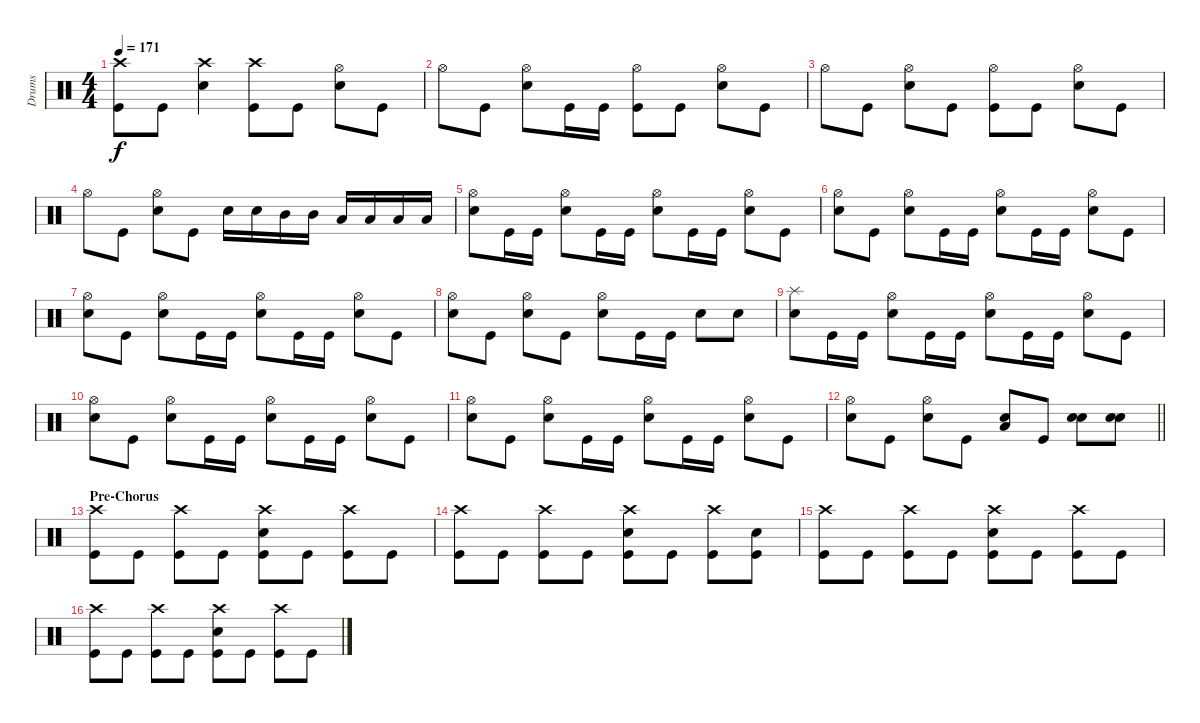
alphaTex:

\track ("Drums" "Drums") {instrument percussion}
\staff {score}
\articulation defaults
\ts (4 4)
\tempo 171
\clef neutral
\ks c
("Crash high (hit)" "Kick (hit)").8{dy f} "Kick (hit)".8 ("Crash high (hit)" "Snare (hit) 2").4 ("Crash high (hit)" "Kick (hit)").8 "Kick (hit)".8 ("Hi-Hat (open)" "Snare (hit) 2").8 "Kick (hit)".8 |
"Hi-Hat (open)".8 "Kick (hit)".8 ("Hi-Hat (open)" "Snare (hit) 2").8 "Kick (hit)".16 "Kick (hit)".16 ("Hi-Hat (open)" "Kick (hit)").8 "Kick (hit)".8 ("Hi-Hat (open)" "Snare (hit) 2").8 "Kick (hit)".8 |
"Hi-Hat (open)".8 "Kick (hit)".8 ("Hi-Hat (open)" "Snare (hit) 2").8 "Kick (hit)".8 ("Hi-Hat (open)" "Kick (hit)").8 "Kick (hit)".8 ("Hi-Hat (open)" "Snare (hit) 2").8 "Kick (hit)".8 |
"Hi-Hat (open)".8 "Kick (hit)".8 ("Hi-Hat (open)" "Snare (hit) 2").8 "Kick (hit)".8 "Snare (hit) 2".16 "Snare (hit) 2".16 "Mid Tom (hit)".16 "Mid Tom (hit)".16 "Low Tom (hit)".16 "Low Tom (hit)".16 "Low Floor Tom (hit)".16 "Low Floor Tom (hit)".16 |
("Hi-Hat (open)" "Snare (hit) 2").8 "Kick (hit)".16 "Kick (hit)".16 ("Hi-Hat (open)" "Snare (hit) 2").8 "Kick (hit)".16 "Kick (hit)".16 ("Hi-Hat (open)" "Snare (hit) 2").8 "Kick (hit)".16 "Kick (hit)".16 ("Hi-Hat (open)" "Snare (hit) 2").8 "Kick (hit)".8 |
("Hi-Hat (open)" "Snare (hit) 2").8 "Kick (hit)".8 ("Hi-Hat (open)" "Snare (hit) 2").8 "Kick (hit)".16 "Kick (hit)".16 ("Hi-Hat (open)" "Snare (hit) 2").8 "Kick (hit)".16 "Kick (hit)".16 ("Hi-Hat (open)" "Snare (hit) 2").8 "Kick (hit)".8 |
("Hi-Hat (open)" "Snare (hit) 2").8 "Kick (hit)".8 ("Hi-Hat (open)" "Snare (hit) 2").8 "Kick (hit)".16 "Kick (hit)".16 ("Hi-Hat (open)" "Snare (hit) 2").8 "Kick (hit)".16 "Kick (hit)".16 ("Hi-Hat (open)" "Snare (hit) 2").8 "Kick (hit)".8 |
("Hi-Hat (open)" "Snare (hit) 2").8 "Kick (hit)".8 ("Hi-Hat (open)" "Snare (hit) 2").8 "Kick (hit)".8 ("Hi-Hat (open)" "Snare (hit) 2").8 "Kick (hit)".16 "Kick (hit)".16 "Snare (hit) 2".8 "Snare (hit) 2".8 |
("Splash (hit)" "Snare (hit) 2").8 "Kick (hit)".16 "Kick (hit)".16 ("Hi-Hat (open)" "Snare (hit) 2").8 "Kick (hit)".16 "Kick (hit)".16 ("Hi-Hat (open)" "Snare (hit) 2").8 "Kick (hit)".16 "Kick (hit)".16 ("Hi-Hat (open)" "Snare (hit) 2").8 "Kick (hit)".8 |
("Hi-Hat (open)" "Snare (hit) 2").8 "Kick (hit)".8 ("Hi-Hat (open)" "Snare (hit) 2").8 "Kick (hit)".16 "Kick (hit)".16 ("Hi-Hat (open)" "Snare (hit) 2").8 "Kick (hit)".16 "Kick (hit)".16 ("Hi-Hat (open)" "Snare (hit) 2").8 "Kick (hit)".8 |
("Hi-Hat (open)" "Snare (hit) 2").8 "Kick (hit)".8 ("Hi-Hat (open)" "Snare (hit) 2").8 "Kick (hit)".16 "Kick (hit)".16 ("Hi-Hat (open)" "Snare (hit) 2").8 "Kick (hit)".16 "Kick (hit)".16 ("Hi-Hat (open)" "Snare (hit) 2").8 "Kick (hit)".8 |
\barLineRight lightlight
("Hi-Hat (open)" "Snare (hit) 2").8 "Kick (hit)".8 ("Hi-Hat (open)" "Snare (hit) 2").8 "Kick (hit)".8 ("Low Floor Tom (hit)" "Snare (hit) 2").8 "Kick (hit)".8 ("Snare (hit) 2" "Snare (hit) 2").8 ("Snare (hit) 2" "Snare (hit) 2").8 |
\section ("" "Pre-Chorus")
("Crash high (hit)" "Kick (hit)").8 "Kick (hit)".8 ("Crash high (hit)" "Kick (hit)").8 "Kick (hit)".8 ("Crash high (hit)" "Snare (hit) 2" "Kick (hit)").8 "Kick (hit)".8 ("Crash high (hit)" "Kick (hit)").8 "Kick (hit)".8 |
("Crash high (hit)" "Kick (hit)").8 "Kick (hit)".8 ("Crash high (hit)" "Kick (hit)").8 "Kick (hit)".8 ("Crash high (hit)" "Snare (hit) 2" "Kick (hit)").8 "Kick (hit)".8 ("Crash high (hit)" "Kick (hit)").8 ("Snare (hit) 2" "Kick (hit)").8 |
("Crash high (hit)" "Kick (hit)").8 "Kick (hit)".8 ("Crash high (hit)" "Kick (hit)").8 "Kick (hit)".8 ("Crash high (hit)" "Snare (hit) 2" "Kick (hit)").8 "Kick (hit)".8 ("Crash high (hit)" "Kick (hit)").8 "Kick (hit)".8 |
("Crash high (hit)" "Kick (hit)").8 "Kick (hit)".8 ("Crash high (hit)" "Kick (hit)").8 "Kick (hit)".8 ("Crash high (hit)" "Snare (hit) 2" "Kick (hit)").8 "Kick (hit)".8 ("Crash high (hit)" "Kick (hit)").8 "Kick (hit)".8
